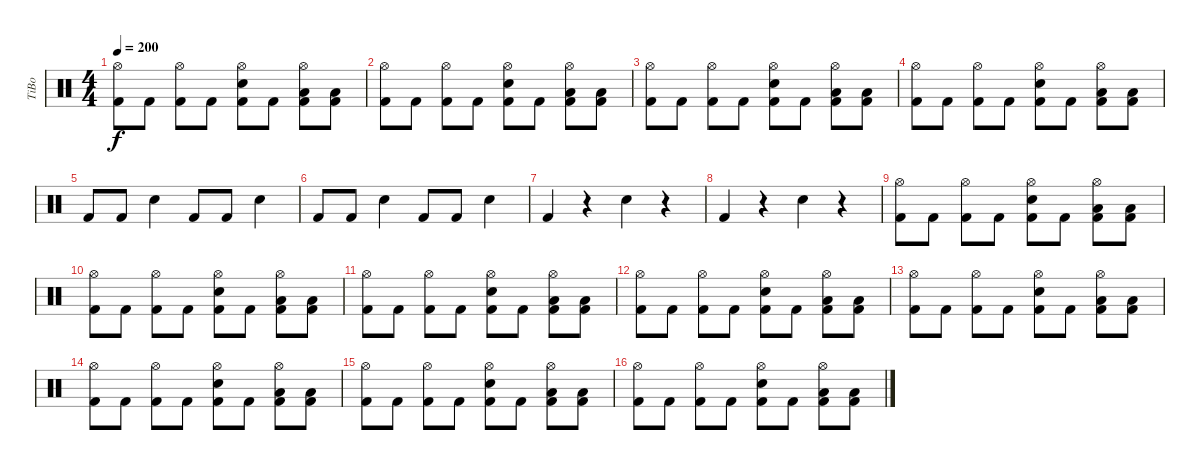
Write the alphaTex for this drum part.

\track ("TiBo" "TiBo") {instrument percussion}
\staff {score}
\articulation defaults
\ts (4 4)
\tempo 200
\clef neutral
\ks c
("Hi-Hat (open)" "Kick (hit) 2").8{dy f} "Kick (hit) 2".8 ("Hi-Hat (open)" "Kick (hit) 2").8 "Kick (hit) 2".8 ("Hi-Hat (open)" "Snare (hit) 2" "Kick (hit) 2").8 "Kick (hit) 2".8 ("Hi-Hat (open)" "Low Tom (hit)" "Kick (hit) 2").8 ("Low Tom (hit)" "Kick (hit) 2").8 |
("Hi-Hat (open)" "Kick (hit) 2").8 "Kick (hit) 2".8 ("Hi-Hat (open)" "Kick (hit) 2").8 "Kick (hit) 2".8 ("Hi-Hat (open)" "Snare (hit) 2" "Kick (hit) 2").8 "Kick (hit) 2".8 ("Hi-Hat (open)" "Low Tom (hit)" "Kick (hit) 2").8 ("Low Tom (hit)" "Kick (hit) 2").8 |
("Hi-Hat (open)" "Kick (hit) 2").8 "Kick (hit) 2".8 ("Hi-Hat (open)" "Kick (hit) 2").8 "Kick (hit) 2".8 ("Hi-Hat (open)" "Snare (hit) 2" "Kick (hit) 2").8 "Kick (hit) 2".8 ("Hi-Hat (open)" "Low Tom (hit)" "Kick (hit) 2").8 ("Low Tom (hit)" "Kick (hit) 2").8 |
("Hi-Hat (open)" "Kick (hit) 2").8 "Kick (hit) 2".8 ("Hi-Hat (open)" "Kick (hit) 2").8 "Kick (hit) 2".8 ("Hi-Hat (open)" "Snare (hit) 2" "Kick (hit) 2").8 "Kick (hit) 2".8 ("Hi-Hat (open)" "Low Tom (hit)" "Kick (hit) 2").8 ("Low Tom (hit)" "Kick (hit) 2").8 |
"Kick (hit) 2".8 "Kick (hit) 2".8 "Snare (hit) 2".4 "Kick (hit) 2".8 "Kick (hit) 2".8 "Snare (hit) 2".4 |
"Kick (hit) 2".8 "Kick (hit) 2".8 "Snare (hit) 2".4 "Kick (hit) 2".8 "Kick (hit) 2".8 "Snare (hit) 2".4 |
"Kick (hit) 2".4 r.4 "Snare (hit) 2".4 r.4 |
"Kick (hit) 2".4 r.4 "Snare (hit) 2".4 r.4 |
("Hi-Hat (open)" "Kick (hit) 2").8 "Kick (hit) 2".8 ("Hi-Hat (open)" "Kick (hit) 2").8 "Kick (hit) 2".8 ("Hi-Hat (open)" "Snare (hit) 2" "Kick (hit) 2").8 "Kick (hit) 2".8 ("Hi-Hat (open)" "Low Tom (hit)" "Kick (hit) 2").8 ("Low Tom (hit)" "Kick (hit) 2").8 |
("Hi-Hat (open)" "Kick (hit) 2").8 "Kick (hit) 2".8 ("Hi-Hat (open)" "Kick (hit) 2").8 "Kick (hit) 2".8 ("Hi-Hat (open)" "Snare (hit) 2" "Kick (hit) 2").8 "Kick (hit) 2".8 ("Hi-Hat (open)" "Low Tom (hit)" "Kick (hit) 2").8 ("Low Tom (hit)" "Kick (hit) 2").8 |
("Hi-Hat (open)" "Kick (hit) 2").8 "Kick (hit) 2".8 ("Hi-Hat (open)" "Kick (hit) 2").8 "Kick (hit) 2".8 ("Hi-Hat (open)" "Snare (hit) 2" "Kick (hit) 2").8 "Kick (hit) 2".8 ("Hi-Hat (open)" "Low Tom (hit)" "Kick (hit) 2").8 ("Low Tom (hit)" "Kick (hit) 2").8 |
("Hi-Hat (open)" "Kick (hit) 2").8 "Kick (hit) 2".8 ("Hi-Hat (open)" "Kick (hit) 2").8 "Kick (hit) 2".8 ("Hi-Hat (open)" "Snare (hit) 2" "Kick (hit) 2").8 "Kick (hit) 2".8 ("Hi-Hat (open)" "Low Tom (hit)" "Kick (hit) 2").8 ("Low Tom (hit)" "Kick (hit) 2").8 |
("Hi-Hat (open)" "Kick (hit) 2").8 "Kick (hit) 2".8 ("Hi-Hat (open)" "Kick (hit) 2").8 "Kick (hit) 2".8 ("Hi-Hat (open)" "Snare (hit) 2" "Kick (hit) 2").8 "Kick (hit) 2".8 ("Hi-Hat (open)" "Low Tom (hit)" "Kick (hit) 2").8 ("Low Tom (hit)" "Kick (hit) 2").8 |
("Hi-Hat (open)" "Kick (hit) 2").8 "Kick (hit) 2".8 ("Hi-Hat (open)" "Kick (hit) 2").8 "Kick (hit) 2".8 ("Hi-Hat (open)" "Snare (hit) 2" "Kick (hit) 2").8 "Kick (hit) 2".8 ("Hi-Hat (open)" "Low Tom (hit)" "Kick (hit) 2").8 ("Low Tom (hit)" "Kick (hit) 2").8 |
("Hi-Hat (open)" "Kick (hit) 2").8 "Kick (hit) 2".8 ("Hi-Hat (open)" "Kick (hit) 2").8 "Kick (hit) 2".8 ("Hi-Hat (open)" "Snare (hit) 2" "Kick (hit) 2").8 "Kick (hit) 2".8 ("Hi-Hat (open)" "Low Tom (hit)" "Kick (hit) 2").8 ("Low Tom (hit)" "Kick (hit) 2").8 |
("Hi-Hat (open)" "Kick (hit) 2").8 "Kick (hit) 2".8 ("Hi-Hat (open)" "Kick (hit) 2").8 "Kick (hit) 2".8 ("Hi-Hat (open)" "Snare (hit) 2" "Kick (hit) 2").8 "Kick (hit) 2".8 ("Hi-Hat (open)" "Low Tom (hit)" "Kick (hit) 2").8 ("Low Tom (hit)" "Kick (hit) 2").8
